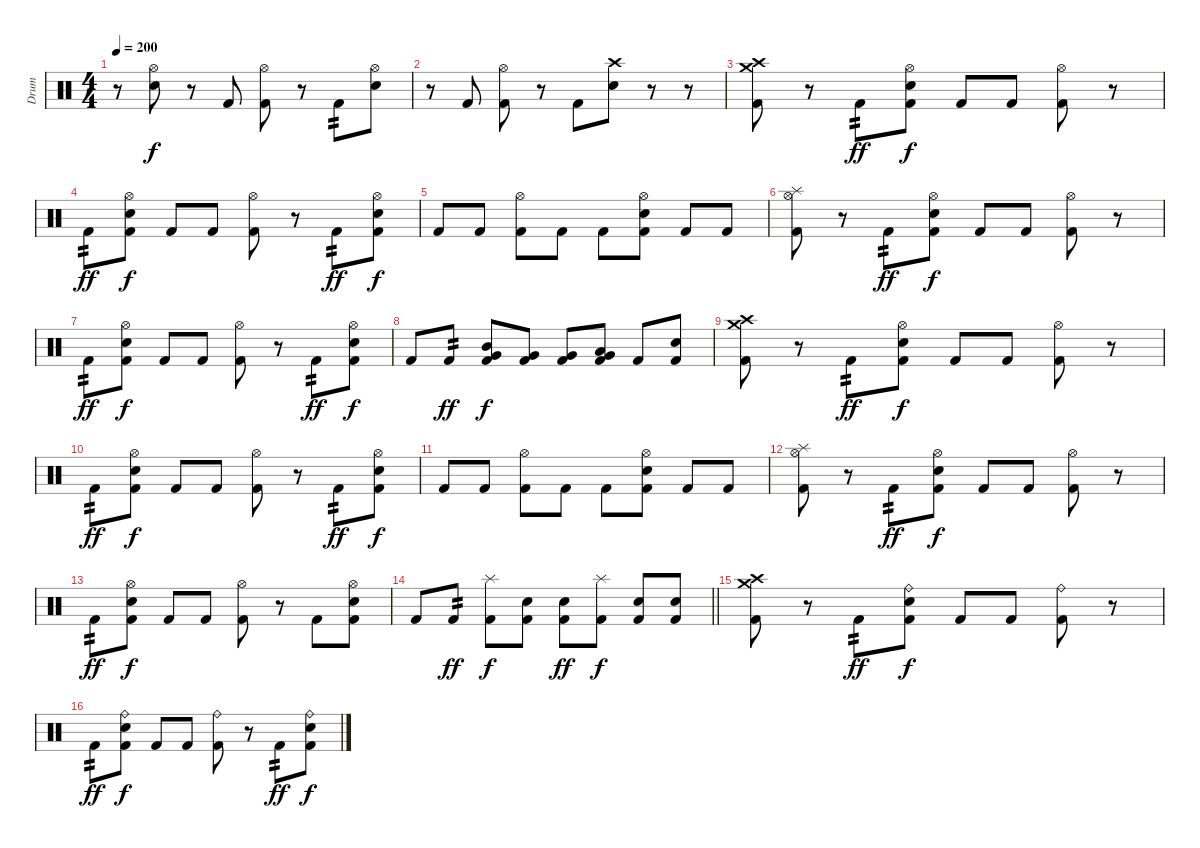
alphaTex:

\track ("Drum" "Drum") {instrument percussion}
\staff {score}
\articulation defaults
\ts (4 4)
\tempo 200
\clef neutral
\ks c
r.8{dy f} ("Hi-Hat (open)" "Snare (hit) 2").8 r.8 "Kick (hit) 2".8 ("Hi-Hat (open)" "Kick (hit) 2").8 r.8 "Kick (hit) 2".8{tp 2} ("Hi-Hat (open)" "Snare (hit) 2").8 |
r.8 "Kick (hit) 2".8 ("Hi-Hat (open)" "Kick (hit) 2").8 r.8 "Kick (hit) 2".8 ("Crash high (hit)" "Snare (hit) 2").8 r.8 r.8 |
("Crash medium (hit)" "Crash high (hit)" "Kick (hit) 2").8 r.8 "Kick (hit) 2".8{tp 2 dy ff} ("Hi-Hat (open)" "Snare (hit) 2" "Kick (hit) 2").8{dy f} "Kick (hit) 2".8 "Kick (hit) 2".8 ("Hi-Hat (open)" "Kick (hit) 2").8 r.8 |
"Kick (hit) 2".8{tp 2 dy ff} ("Hi-Hat (open)" "Snare (hit) 2" "Kick (hit) 2").8{dy f} "Kick (hit) 2".8 "Kick (hit) 2".8 ("Hi-Hat (open)" "Kick (hit) 2").8 r.8 "Kick (hit) 2".8{tp 2 dy ff} ("Hi-Hat (open)" "Snare (hit) 2" "Kick (hit) 2").8{dy f} |
"Kick (hit) 2".8 "Kick (hit) 2".8 ("Hi-Hat (open)" "Kick (hit) 2").8 "Kick (hit) 2".8 "Kick (hit) 2".8 ("Hi-Hat (open)" "Snare (hit) 2" "Kick (hit) 2").8 "Kick (hit) 2".8 "Kick (hit) 2".8 |
("Hi-Hat (open)" "Splash (hit)" "Kick (hit) 2").8 r.8 "Kick (hit) 2".8{tp 2 dy ff} ("Hi-Hat (open)" "Snare (hit) 2" "Kick (hit) 2").8{dy f} "Kick (hit) 2".8 "Kick (hit) 2".8 ("Hi-Hat (open)" "Kick (hit) 2").8 r.8 |
"Kick (hit) 2".8{tp 2 dy ff} ("Hi-Hat (open)" "Snare (hit) 2" "Kick (hit) 2").8{dy f} "Kick (hit) 2".8 "Kick (hit) 2".8 ("Hi-Hat (open)" "Kick (hit) 2").8 r.8 "Kick (hit) 2".8{tp 2 dy ff} ("Hi-Hat (open)" "Snare (hit) 2" "Kick (hit) 2").8{dy f} |
"Kick (hit) 2".8 "Kick (hit) 2".8{tp 2 dy ff} ("Very Low Tom (hit)" "Mid Tom (hit)" "Kick (hit) 2").8{dy f} ("Very Low Tom (hit)" "Kick (hit) 2").8 ("Very Low Tom (hit)" "Kick (hit) 2").8 ("Very Low Tom (hit)" "Low Tom (hit)" "Kick (hit) 2").8 "Kick (hit) 2".8 ("Snare (hit) 2" "Kick (hit) 2").8 |
("Crash medium (hit)" "Crash high (hit)" "Kick (hit) 2").8 r.8 "Kick (hit) 2".8{tp 2 dy ff} ("Hi-Hat (open)" "Snare (hit) 2" "Kick (hit) 2").8{dy f} "Kick (hit) 2".8 "Kick (hit) 2".8 ("Hi-Hat (open)" "Kick (hit) 2").8 r.8 |
"Kick (hit) 2".8{tp 2 dy ff} ("Hi-Hat (open)" "Snare (hit) 2" "Kick (hit) 2").8{dy f} "Kick (hit) 2".8 "Kick (hit) 2".8 ("Hi-Hat (open)" "Kick (hit) 2").8 r.8 "Kick (hit) 2".8{tp 2 dy ff} ("Hi-Hat (open)" "Snare (hit) 2" "Kick (hit) 2").8{dy f} |
"Kick (hit) 2".8 "Kick (hit) 2".8 ("Hi-Hat (open)" "Kick (hit) 2").8 "Kick (hit) 2".8 "Kick (hit) 2".8 ("Hi-Hat (open)" "Snare (hit) 2" "Kick (hit) 2").8 "Kick (hit) 2".8 "Kick (hit) 2".8 |
("Hi-Hat (open)" "Splash (hit)" "Kick (hit) 2").8 r.8 "Kick (hit) 2".8{tp 2 dy ff} ("Hi-Hat (open)" "Snare (hit) 2" "Kick (hit) 2").8{dy f} "Kick (hit) 2".8 "Kick (hit) 2".8 ("Hi-Hat (open)" "Kick (hit) 2").8 r.8 |
"Kick (hit) 2".8{tp 2 dy ff} ("Hi-Hat (open)" "Snare (hit) 2" "Kick (hit) 2").8{dy f} "Kick (hit) 2".8 "Kick (hit) 2".8 ("Hi-Hat (open)" "Kick (hit) 2").8 r.8 "Kick (hit) 2".8 ("Hi-Hat (open)" "Snare (hit) 2" "Kick (hit) 2").8 |
\barLineRight lightlight "Kick (hit) 2".8 "Kick (hit) 2".8{tp 2 dy ff}
("Splash (hit)" "Kick (hit) 2").8{dy f} ("Snare (hit) 2" "Kick (hit) 2").8 ("Snare (hit) 2" "Kick (hit) 2").8{dy ff} ("Splash (hit)" "Kick (hit) 2").8{dy f} ("Snare (hit) 2" "Kick (hit) 2").8 ("Snare (hit) 2" "Kick (hit) 2").8 |
\section ("" "")
("Crash medium (hit)" "Crash high (hit)" "Kick (hit) 2").8 r.8 "Kick (hit) 2".8{tp 2 dy ff} ("Ride (bell)" "Snare (hit) 2" "Kick (hit) 2").8{dy f} "Kick (hit) 2".8 "Kick (hit) 2".8 ("Ride (bell)" "Kick (hit) 2").8 r.8 |
"Kick (hit) 2".8{tp 2 dy ff} ("Ride (bell)" "Snare (hit) 2" "Kick (hit) 2").8{dy f} "Kick (hit) 2".8 "Kick (hit) 2".8 ("Ride (bell)" "Kick (hit) 2").8 r.8 "Kick (hit) 2".8{tp 2 dy ff} ("Ride (bell)" "Snare (hit) 2" "Kick (hit) 2").8{dy f}
